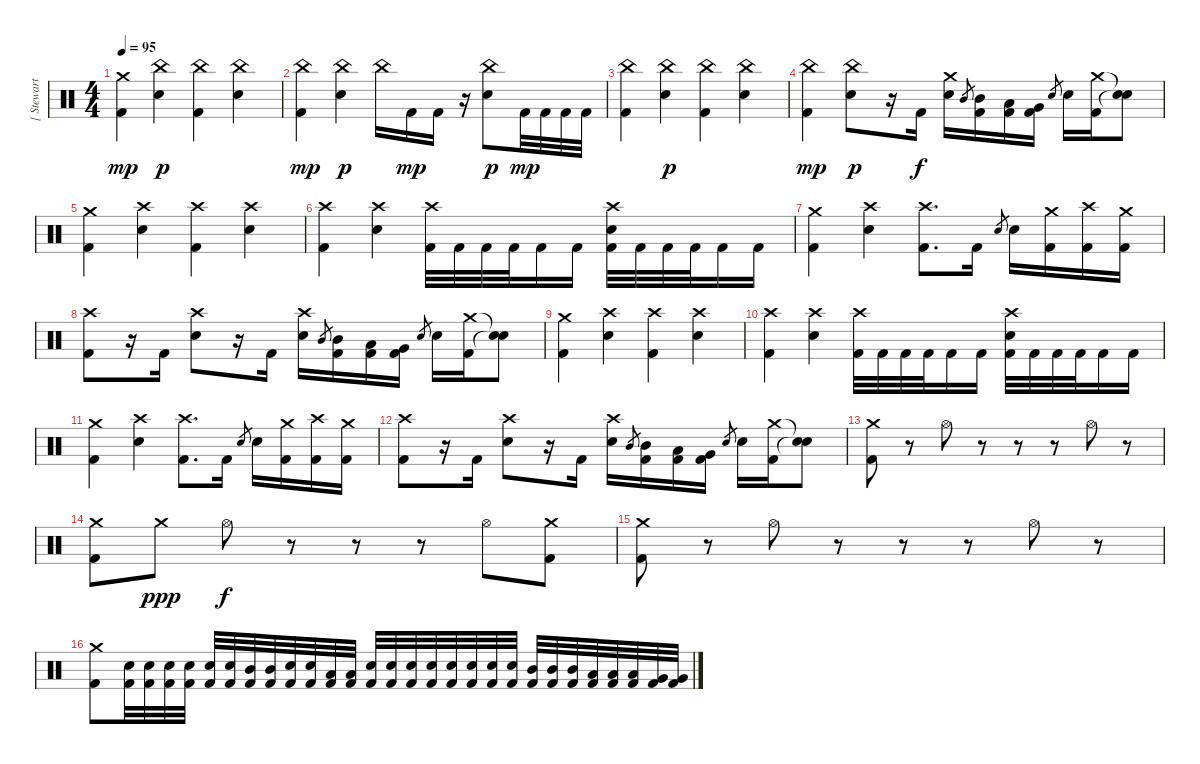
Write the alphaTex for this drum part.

\track ("[ Stewart ] " "[ Stewart ") {instrument percussion}
\staff {score}
\articulation defaults
\ts (4 4)
\tempo 95
\clef neutral
\ks c
("Kick (hit) 2" "Crash medium (hit)").4{dy mp} ("Electric Snare (hit)" "China (hit)").4{dy p} ("Kick (hit) 2" "China (hit)").4 ("Electric Snare (hit)" "China (hit)").4 |
("Kick (hit) 2" "China (hit)").4{dy mp} ("Electric Snare (hit)" "China (hit)").4{dy p} "China (hit)".16 "Kick (hit) 2".16{dy mp} "Kick (hit) 2".16 r.16 ("Electric Snare (hit)" "China (hit)").8{dy p} "Kick (hit) 2".32{dy mp} "Kick (hit) 2".32 "Kick (hit) 2".32 "Kick (hit) 2".32 |
("Kick (hit) 2" "China (hit)").4 ("Electric Snare (hit)" "China (hit)").4{dy p} ("Kick (hit) 2" "China (hit)").4 ("Electric Snare (hit)" "China (hit)").4 |
("Kick (hit) 2" "China (hit)").4{dy mp} ("Electric Snare (hit)" "China (hit)").8{dy p} r.16 "Kick (hit) 2".16{dy f} ("Electric Snare (hit)" "Crash medium (hit)").16 "Mid Tom (hit)".8{gr} ("Kick (hit) 2" "Mid Tom (hit)").16 ("Kick (hit) 2" "Low Tom (hit)").16 ("Kick (hit) 2" "Very Low Tom (hit)").16 "Electric Snare (hit)".8{gr} "Electric Snare (hit)".16 ("Kick (hit) 2" "Crash medium (hit)").16 ("Snare (hit)"{t} "Snare (hit)"{t}).8 |
("Kick (hit) 2" "Crash medium (hit)").4 ("Electric Snare (hit)" "Crash high (hit)").4 ("Kick (hit) 2" "Crash high (hit)").4 ("Electric Snare (hit)" "Crash high (hit)").4 |
("Kick (hit) 2" "Crash high (hit)").4 ("Electric Snare (hit)" "Crash high (hit)").4 ("Kick (hit) 2" "Crash high (hit)").32 "Kick (hit) 2".32 "Kick (hit) 2".32 "Kick (hit) 2".32 "Kick (hit) 2".16 "Kick (hit) 2".16 ("Kick (hit) 2" "Electric Snare (hit)" "Crash high (hit)").32 "Kick (hit) 2".32 "Kick (hit) 2".32 "Kick (hit) 2".32 "Kick (hit) 2".16 "Kick (hit) 2".16 |
("Kick (hit) 2" "Crash medium (hit)").4 ("Electric Snare (hit)" "Crash high (hit)").4 ("Kick (hit) 2" "Crash high (hit)").8{d} "Kick (hit) 2".16 "Electric Snare (hit)".8{gr} "Electric Snare (hit)".16 ("Kick (hit) 2" "Crash medium (hit)").16 ("Kick (hit) 2" "Crash high (hit)").16 ("Kick (hit) 2" "Crash medium (hit)").16 |
("Kick (hit) 2" "Crash high (hit)").8 r.16 "Kick (hit) 2".16 ("Electric Snare (hit)" "Crash high (hit)").8 r.16 "Kick (hit) 2".16 ("Electric Snare (hit)" "Crash high (hit)").16 "Mid Tom (hit)".8{gr} ("Kick (hit) 2" "Mid Tom (hit)").16 ("Kick (hit) 2" "Low Tom (hit)").16 ("Kick (hit) 2" "Very Low Tom (hit)").16 "Electric Snare (hit)".8{gr} "Electric Snare (hit)".16 ("Kick (hit) 2" "Crash medium (hit)").16 ("Snare (hit)"{t} "Snare (hit)"{t}).8 |
("Kick (hit) 2" "Crash medium (hit)").4 ("Electric Snare (hit)" "Crash high (hit)").4 ("Kick (hit) 2" "Crash high (hit)").4 ("Electric Snare (hit)" "Crash high (hit)").4 |
("Kick (hit) 2" "Crash high (hit)").4 ("Electric Snare (hit)" "Crash high (hit)").4 ("Kick (hit) 2" "Crash high (hit)").32 "Kick (hit) 2".32 "Kick (hit) 2".32 "Kick (hit) 2".32 "Kick (hit) 2".16 "Kick (hit) 2".16 ("Kick (hit) 2" "Electric Snare (hit)" "Crash high (hit)").32 "Kick (hit) 2".32 "Kick (hit) 2".32 "Kick (hit) 2".32 "Kick (hit) 2".16 "Kick (hit) 2".16 |
("Kick (hit) 2" "Crash medium (hit)").4 ("Electric Snare (hit)" "Crash high (hit)").4 ("Kick (hit) 2" "Crash high (hit)").8{d} "Kick (hit) 2".16 "Electric Snare (hit)".8{gr} "Electric Snare (hit)".16 ("Kick (hit) 2" "Crash medium (hit)").16 ("Kick (hit) 2" "Crash high (hit)").16 ("Kick (hit) 2" "Crash medium (hit)").16 |
("Kick (hit) 2" "Crash high (hit)").8 r.16 "Kick (hit) 2".16 ("Electric Snare (hit)" "Crash high (hit)").8 r.16 "Kick (hit) 2".16 ("Electric Snare (hit)" "Crash high (hit)").16 "Mid Tom (hit)".8{gr} ("Kick (hit) 2" "Mid Tom (hit)").16 ("Kick (hit) 2" "Low Tom (hit)").16 ("Kick (hit) 2" "Very Low Tom (hit)").16 "Electric Snare (hit)".8{gr} "Electric Snare (hit)".16 ("Kick (hit) 2" "Crash medium (hit)").16 ("Snare (hit)"{t} "Snare (hit)"{t}).8 |
("Kick (hit) 2" "Crash medium (hit)").8 r.8 "Hi-Hat (open)".8 r.8 r.8 r.8 "Hi-Hat (open)".8 r.8 |
("Kick (hit) 2" "Crash medium (hit)").8 "Crash medium (hit)".8{dy ppp} "Hi-Hat (open)".8{dy f} r.8 r.8 r.8 "Hi-Hat (open)".8 ("Kick (hit) 2" "Crash medium (hit)").8 |
("Kick (hit) 2" "Crash medium (hit)").8 r.8 "Hi-Hat (open)".8 r.8 r.8 r.8 "Hi-Hat (open)".8 r.8 |
("Kick (hit) 2" "Crash medium (hit)").8 ("Electric Snare (hit)" "Kick (hit) 2").32 ("Electric Snare (hit)" "Kick (hit) 2").32 ("Electric Snare (hit)" "Kick (hit) 2").32 ("Electric Snare (hit)" "Kick (hit) 2").32 ("Electric Snare (hit)" "Kick (hit) 2").32 ("Electric Snare (hit)" "Kick (hit) 2").32 ("Mid Tom (hit)" "Kick (hit) 2").32 ("Mid Tom (hit)" "Kick (hit) 2").32 ("Electric Snare (hit)" "Kick (hit) 2").32 ("Electric Snare (hit)" "Kick (hit) 2").32 ("Low Tom (hit)" "Kick (hit) 2").32 ("Low Tom (hit)" "Kick (hit) 2").32 ("Electric Snare (hit)" "Kick (hit) 2").32 ("Electric Snare (hit)" "Kick (hit) 2").32 ("Electric Snare (hit)" "Kick (hit) 2").32 ("Electric Snare (hit)" "Kick (hit) 2").32 ("Electric Snare (hit)" "Kick (hit) 2").32 ("Electric Snare (hit)" "Kick (hit) 2").32 ("Electric Snare (hit)" "Kick (hit) 2").32 ("Electric Snare (hit)" "Kick (hit) 2").32 ("Mid Tom (hit)" "Kick (hit) 2").32 ("Mid Tom (hit)" "Kick (hit) 2").32 ("Mid Tom (hit)" "Kick (hit) 2").32 ("Low Tom (hit)" "Kick (hit) 2").32 ("Low Tom (hit)" "Kick (hit) 2").32 ("Low Tom (hit)" "Kick (hit) 2").32 ("Very Low Tom (hit)" "Kick (hit) 2").32 ("Very Low Tom (hit)" "Kick (hit) 2").32
